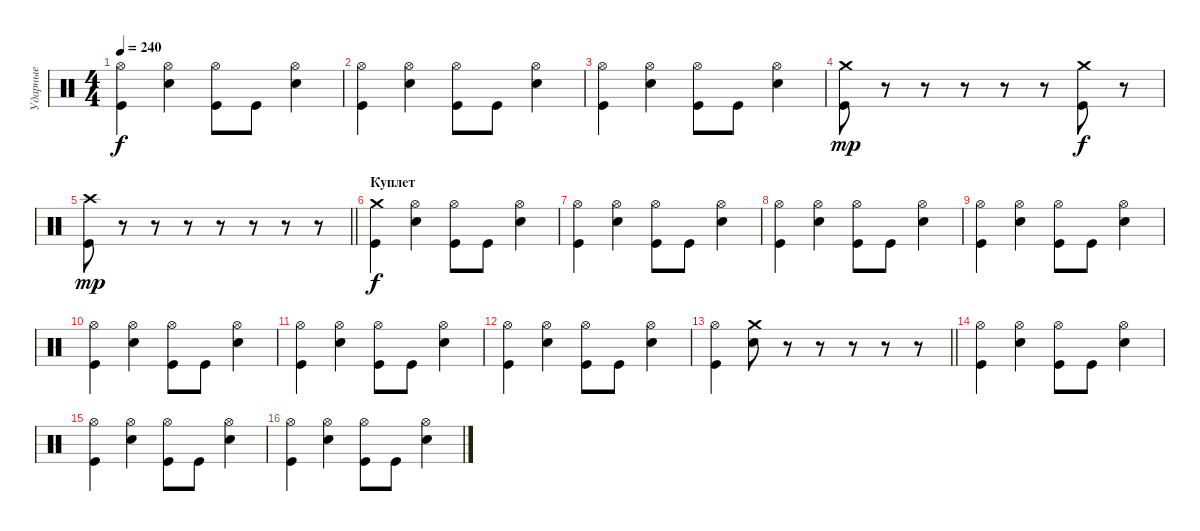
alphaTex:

\track ("Ударные" "Ударные") {instrument percussion}
\staff {score}
\articulation defaults
\ts (4 4)
\tempo 240
\clef neutral
\ks c
("Hi-Hat (open)" "Kick (hit)").4{dy f} ("Hi-Hat (open)" "Electric Snare (hit)").4 ("Hi-Hat (open)" "Kick (hit)").8 "Kick (hit)".8 ("Hi-Hat (open)" "Electric Snare (hit)").4 |
("Hi-Hat (open)" "Kick (hit)").4 ("Hi-Hat (open)" "Electric Snare (hit)").4 ("Hi-Hat (open)" "Kick (hit)").8 "Kick (hit)".8 ("Hi-Hat (open)" "Electric Snare (hit)").4 |
("Hi-Hat (open)" "Kick (hit)").4 ("Hi-Hat (open)" "Electric Snare (hit)").4 ("Hi-Hat (open)" "Kick (hit)").8 "Kick (hit)".8 ("Hi-Hat (open)" "Electric Snare (hit)").4 |
("Crash medium (hit)" "Kick (hit)").8{dy mp} r.8 r.8 r.8 r.8 r.8 ("Crash medium (hit)" "Kick (hit)").8{dy f} r.8 |
\barLineRight lightlight
("Crash high (hit)" "Kick (hit)").8{dy mp} r.8 r.8 r.8 r.8 r.8 r.8 r.8 |
\section ("" "Куплет")
("Crash medium (hit)" "Kick (hit)").4{dy f} ("Hi-Hat (open)" "Electric Snare (hit)").4 ("Hi-Hat (open)" "Kick (hit)").8 "Kick (hit)".8 ("Hi-Hat (open)" "Electric Snare (hit)").4 |
("Hi-Hat (open)" "Kick (hit)").4 ("Hi-Hat (open)" "Electric Snare (hit)").4 ("Hi-Hat (open)" "Kick (hit)").8 "Kick (hit)".8 ("Hi-Hat (open)" "Electric Snare (hit)").4 |
("Hi-Hat (open)" "Kick (hit)").4 ("Hi-Hat (open)" "Electric Snare (hit)").4 ("Hi-Hat (open)" "Kick (hit)").8 "Kick (hit)".8 ("Hi-Hat (open)" "Electric Snare (hit)").4 |
("Hi-Hat (open)" "Kick (hit)").4 ("Hi-Hat (open)" "Electric Snare (hit)").4 ("Hi-Hat (open)" "Kick (hit)").8 "Kick (hit)".8 ("Hi-Hat (open)" "Electric Snare (hit)").4 |
("Hi-Hat (open)" "Kick (hit)").4 ("Hi-Hat (open)" "Electric Snare (hit)").4 ("Hi-Hat (open)" "Kick (hit)").8 "Kick (hit)".8 ("Hi-Hat (open)" "Electric Snare (hit)").4 |
("Hi-Hat (open)" "Kick (hit)").4 ("Hi-Hat (open)" "Electric Snare (hit)").4 ("Hi-Hat (open)" "Kick (hit)").8 "Kick (hit)".8 ("Hi-Hat (open)" "Electric Snare (hit)").4 |
("Hi-Hat (open)" "Kick (hit)").4 ("Hi-Hat (open)" "Electric Snare (hit)").4 ("Hi-Hat (open)" "Kick (hit)").8 "Kick (hit)".8 ("Hi-Hat (open)" "Electric Snare (hit)").4 |
\barLineRight lightlight
("Hi-Hat (open)" "Kick (hit)").4 ("Crash medium (hit)" "Electric Snare (hit)").8 r.8 r.8 r.8 r.8 r.8 |
("Hi-Hat (open)" "Kick (hit)").4 ("Hi-Hat (open)" "Electric Snare (hit)").4 ("Hi-Hat (open)" "Kick (hit)").8 "Kick (hit)".8 ("Hi-Hat (open)" "Electric Snare (hit)").4 |
("Hi-Hat (open)" "Kick (hit)").4 ("Hi-Hat (open)" "Electric Snare (hit)").4 ("Hi-Hat (open)" "Kick (hit)").8 "Kick (hit)".8 ("Hi-Hat (open)" "Electric Snare (hit)").4 |
("Hi-Hat (open)" "Kick (hit)").4 ("Hi-Hat (open)" "Electric Snare (hit)").4 ("Hi-Hat (open)" "Kick (hit)").8 "Kick (hit)".8 ("Hi-Hat (open)" "Electric Snare (hit)").4
